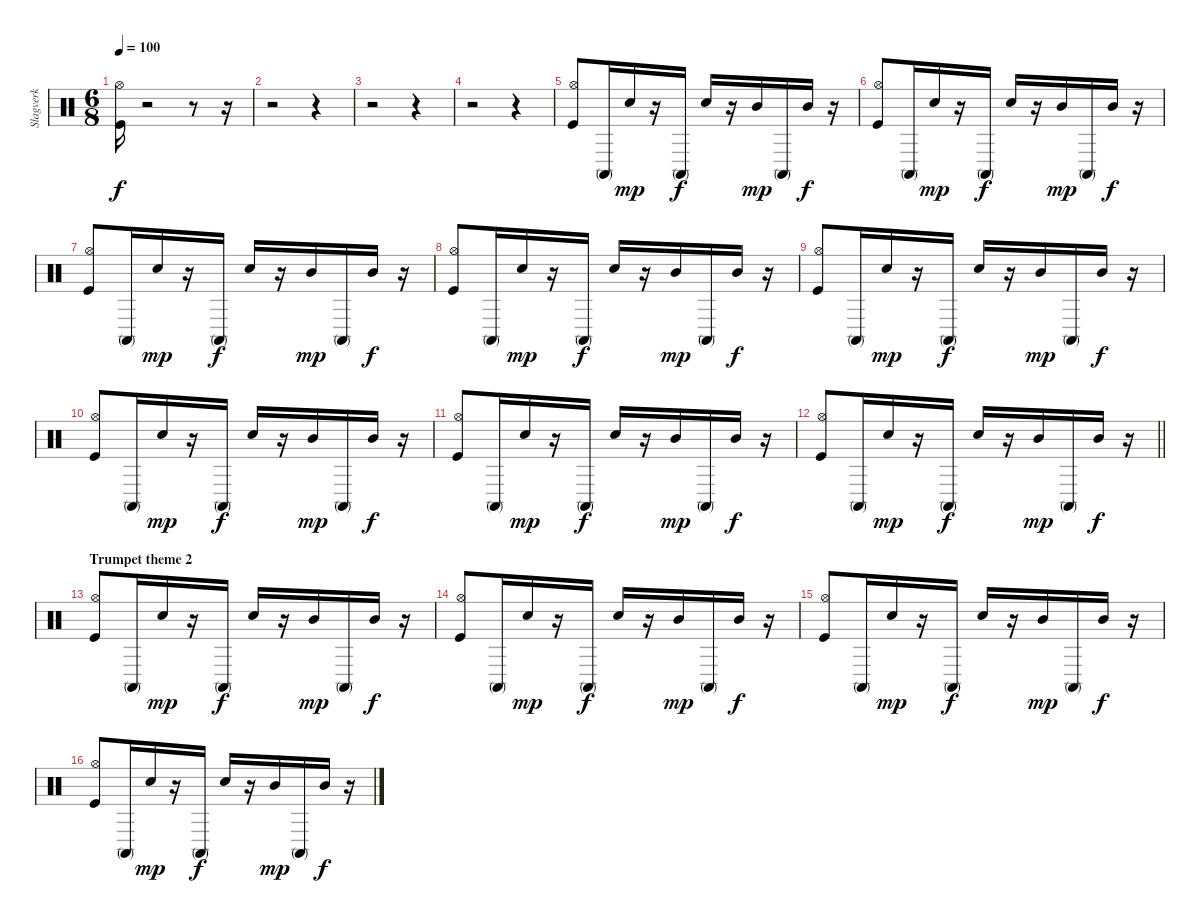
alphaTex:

\track ("Slagverk" "Slagverk") {instrument percussion}
\staff {score}
\articulation defaults
\ts (6 8)
\tempo 100
\clef neutral
\ks c
("Hi-Hat (open)" "Kick (hit)").16{dy f} r.2 r.8 r.16 |
r.2 r.4 |
r.2 r.4 |
r.2 r.4 |
("Hi-Hat (open)" "Kick (hit)").8 "Conga high (mute)".16 "Snare (hit) 2".16{dy mp} r.16 "Conga high (mute)".16{dy f} "Snare (hit) 2".16 r.16 "Mid Tom (hit)".16{dy mp} "Conga high (mute)".16 "Mid Tom (hit)".16{dy f} r.16 |
("Hi-Hat (open)" "Kick (hit)").8 "Conga high (mute)".16 "Snare (hit) 2".16{dy mp} r.16 "Conga high (mute)".16{dy f} "Snare (hit) 2".16 r.16 "Mid Tom (hit)".16{dy mp} "Conga high (mute)".16 "Mid Tom (hit)".16{dy f} r.16 |
("Hi-Hat (open)" "Kick (hit)").8 "Conga high (mute)".16 "Snare (hit) 2".16{dy mp} r.16 "Conga high (mute)".16{dy f} "Snare (hit) 2".16 r.16 "Mid Tom (hit)".16{dy mp} "Conga high (mute)".16 "Mid Tom (hit)".16{dy f} r.16 |
("Hi-Hat (open)" "Kick (hit)").8 "Conga high (mute)".16 "Snare (hit) 2".16{dy mp} r.16 "Conga high (mute)".16{dy f} "Snare (hit) 2".16 r.16 "Mid Tom (hit)".16{dy mp} "Conga high (mute)".16 "Mid Tom (hit)".16{dy f} r.16 |
("Hi-Hat (open)" "Kick (hit)").8 "Conga high (mute)".16 "Snare (hit) 2".16{dy mp} r.16 "Conga high (mute)".16{dy f} "Snare (hit) 2".16 r.16 "Mid Tom (hit)".16{dy mp} "Conga high (mute)".16 "Mid Tom (hit)".16{dy f} r.16 |
("Hi-Hat (open)" "Kick (hit)").8 "Conga high (mute)".16 "Snare (hit) 2".16{dy mp} r.16 "Conga high (mute)".16{dy f} "Snare (hit) 2".16 r.16 "Mid Tom (hit)".16{dy mp} "Conga high (mute)".16 "Mid Tom (hit)".16{dy f} r.16 |
("Hi-Hat (open)" "Kick (hit)").8 "Conga high (mute)".16 "Snare (hit) 2".16{dy mp} r.16 "Conga high (mute)".16{dy f} "Snare (hit) 2".16 r.16 "Mid Tom (hit)".16{dy mp} "Conga high (mute)".16 "Mid Tom (hit)".16{dy f} r.16 |
\barLineRight lightlight
("Hi-Hat (open)" "Kick (hit)").8 "Conga high (mute)".16 "Snare (hit) 2".16{dy mp} r.16 "Conga high (mute)".16{dy f} "Snare (hit) 2".16 r.16 "Mid Tom (hit)".16{dy mp} "Conga high (mute)".16 "Mid Tom (hit)".16{dy f} r.16 |
\section ("" "Trumpet theme 2")
("Hi-Hat (open)" "Kick (hit)").8 "Conga high (mute)".16 "Snare (hit) 2".16{dy mp} r.16 "Conga high (mute)".16{dy f} "Snare (hit) 2".16 r.16 "Mid Tom (hit)".16{dy mp} "Conga high (mute)".16 "Mid Tom (hit)".16{dy f} r.16 |
("Hi-Hat (open)" "Kick (hit)").8 "Conga high (mute)".16 "Snare (hit) 2".16{dy mp} r.16 "Conga high (mute)".16{dy f} "Snare (hit) 2".16 r.16 "Mid Tom (hit)".16{dy mp} "Conga high (mute)".16 "Mid Tom (hit)".16{dy f} r.16 |
("Hi-Hat (open)" "Kick (hit)").8 "Conga high (mute)".16 "Snare (hit) 2".16{dy mp} r.16 "Conga high (mute)".16{dy f} "Snare (hit) 2".16 r.16 "Mid Tom (hit)".16{dy mp} "Conga high (mute)".16 "Mid Tom (hit)".16{dy f} r.16 |
("Hi-Hat (open)" "Kick (hit)").8 "Conga high (mute)".16 "Snare (hit) 2".16{dy mp} r.16 "Conga high (mute)".16{dy f} "Snare (hit) 2".16 r.16 "Mid Tom (hit)".16{dy mp} "Conga high (mute)".16 "Mid Tom (hit)".16{dy f} r.16
